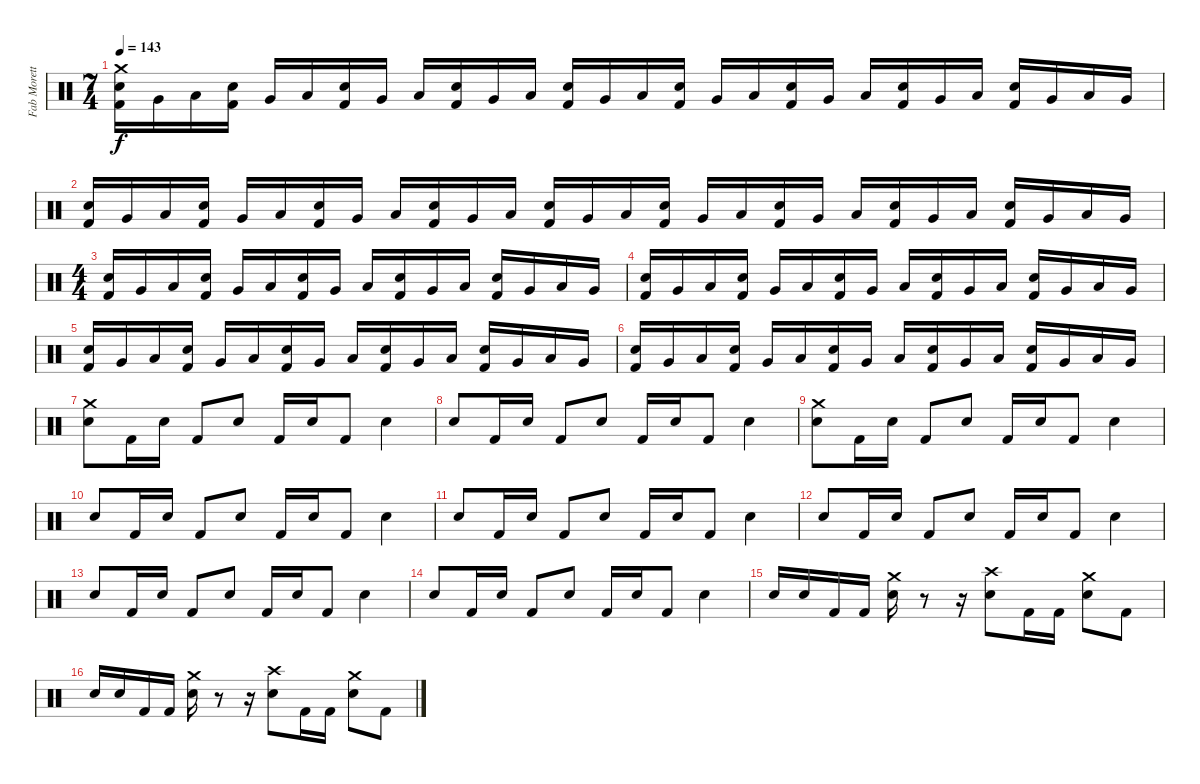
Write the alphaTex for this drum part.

\track ("Fab Moretti" "Fab Morett") {instrument percussion}
\staff {score}
\articulation defaults
\ts (7 4)
\tempo 143
\clef neutral
\ks c
("Crash medium (hit)" "Electric Snare (hit)" "Kick (hit) 2").16{dy f} "Very Low Tom (hit)".16 "Low Floor Tom (hit)".16 ("Electric Snare (hit)" "Kick (hit) 2").16 "Very Low Tom (hit)".16 "Low Floor Tom (hit)".16 ("Electric Snare (hit)" "Kick (hit) 2").16 "Very Low Tom (hit)".16 "Low Floor Tom (hit)".16 ("Electric Snare (hit)" "Kick (hit) 2").16 "Very Low Tom (hit)".16 "Low Floor Tom (hit)".16 ("Electric Snare (hit)" "Kick (hit) 2").16 "Very Low Tom (hit)".16 "Low Floor Tom (hit)".16 ("Electric Snare (hit)" "Kick (hit) 2").16 "Very Low Tom (hit)".16 "Low Floor Tom (hit)".16 ("Electric Snare (hit)" "Kick (hit) 2").16 "Very Low Tom (hit)".16 "Low Floor Tom (hit)".16 ("Electric Snare (hit)" "Kick (hit) 2").16 "Very Low Tom (hit)".16 "Low Floor Tom (hit)".16 ("Electric Snare (hit)" "Kick (hit) 2").16 "Very Low Tom (hit)".16 "Low Floor Tom (hit)".16 "Very Low Tom (hit)".16 |
("Electric Snare (hit)" "Kick (hit) 2").16 "Very Low Tom (hit)".16 "Low Floor Tom (hit)".16 ("Electric Snare (hit)" "Kick (hit) 2").16 "Very Low Tom (hit)".16 "Low Floor Tom (hit)".16 ("Electric Snare (hit)" "Kick (hit) 2").16 "Very Low Tom (hit)".16 "Low Floor Tom (hit)".16 ("Electric Snare (hit)" "Kick (hit) 2").16 "Very Low Tom (hit)".16 "Low Floor Tom (hit)".16 ("Electric Snare (hit)" "Kick (hit) 2").16 "Very Low Tom (hit)".16 "Low Floor Tom (hit)".16 ("Electric Snare (hit)" "Kick (hit) 2").16 "Very Low Tom (hit)".16 "Low Floor Tom (hit)".16 ("Electric Snare (hit)" "Kick (hit) 2").16 "Very Low Tom (hit)".16 "Low Floor Tom (hit)".16 ("Electric Snare (hit)" "Kick (hit) 2").16 "Very Low Tom (hit)".16 "Low Floor Tom (hit)".16 ("Electric Snare (hit)" "Kick (hit) 2").16 "Very Low Tom (hit)".16 "Low Floor Tom (hit)".16 "Very Low Tom (hit)".16 |
\ts (4 4)
("Electric Snare (hit)" "Kick (hit) 2").16 "Very Low Tom (hit)".16 "Low Floor Tom (hit)".16 ("Electric Snare (hit)" "Kick (hit) 2").16 "Very Low Tom (hit)".16 "Low Floor Tom (hit)".16 ("Electric Snare (hit)" "Kick (hit) 2").16 "Very Low Tom (hit)".16 "Low Floor Tom (hit)".16 ("Electric Snare (hit)" "Kick (hit) 2").16 "Very Low Tom (hit)".16 "Low Floor Tom (hit)".16 ("Electric Snare (hit)" "Kick (hit) 2").16 "Very Low Tom (hit)".16 "Low Floor Tom (hit)".16 "Very Low Tom (hit)".16 |
("Electric Snare (hit)" "Kick (hit) 2").16 "Very Low Tom (hit)".16 "Low Floor Tom (hit)".16 ("Electric Snare (hit)" "Kick (hit) 2").16 "Very Low Tom (hit)".16 "Low Floor Tom (hit)".16 ("Electric Snare (hit)" "Kick (hit) 2").16 "Very Low Tom (hit)".16 "Low Floor Tom (hit)".16 ("Electric Snare (hit)" "Kick (hit) 2").16 "Very Low Tom (hit)".16 "Low Floor Tom (hit)".16 ("Electric Snare (hit)" "Kick (hit) 2").16 "Very Low Tom (hit)".16 "Low Floor Tom (hit)".16 "Very Low Tom (hit)".16 |
("Electric Snare (hit)" "Kick (hit) 2").16 "Very Low Tom (hit)".16 "Low Floor Tom (hit)".16 ("Electric Snare (hit)" "Kick (hit) 2").16 "Very Low Tom (hit)".16 "Low Floor Tom (hit)".16 ("Electric Snare (hit)" "Kick (hit) 2").16 "Very Low Tom (hit)".16 "Low Floor Tom (hit)".16 ("Electric Snare (hit)" "Kick (hit) 2").16 "Very Low Tom (hit)".16 "Low Floor Tom (hit)".16 ("Electric Snare (hit)" "Kick (hit) 2").16 "Very Low Tom (hit)".16 "Low Floor Tom (hit)".16 "Very Low Tom (hit)".16 |
("Electric Snare (hit)" "Kick (hit) 2").16 "Very Low Tom (hit)".16 "Low Floor Tom (hit)".16 ("Electric Snare (hit)" "Kick (hit) 2").16 "Very Low Tom (hit)".16 "Low Floor Tom (hit)".16 ("Electric Snare (hit)" "Kick (hit) 2").16 "Very Low Tom (hit)".16 "Low Floor Tom (hit)".16 ("Electric Snare (hit)" "Kick (hit) 2").16 "Very Low Tom (hit)".16 "Low Floor Tom (hit)".16 ("Electric Snare (hit)" "Kick (hit) 2").16 "Very Low Tom (hit)".16 "Low Floor Tom (hit)".16 "Very Low Tom (hit)".16 |
("Crash medium (hit)" "Electric Snare (hit)").8 "Kick (hit) 2".16 "Electric Snare (hit)".16 "Kick (hit) 2".8 "Electric Snare (hit)".8 "Kick (hit) 2".16 "Electric Snare (hit)".16 "Kick (hit) 2".8 "Electric Snare (hit)".4 |
"Electric Snare (hit)".8 "Kick (hit) 2".16 "Electric Snare (hit)".16 "Kick (hit) 2".8 "Electric Snare (hit)".8 "Kick (hit) 2".16 "Electric Snare (hit)".16 "Kick (hit) 2".8 "Electric Snare (hit)".4 |
("Crash medium (hit)" "Electric Snare (hit)").8 "Kick (hit) 2".16 "Electric Snare (hit)".16 "Kick (hit) 2".8 "Electric Snare (hit)".8 "Kick (hit) 2".16 "Electric Snare (hit)".16 "Kick (hit) 2".8 "Electric Snare (hit)".4 |
"Electric Snare (hit)".8 "Kick (hit) 2".16 "Electric Snare (hit)".16 "Kick (hit) 2".8 "Electric Snare (hit)".8 "Kick (hit) 2".16 "Electric Snare (hit)".16 "Kick (hit) 2".8 "Electric Snare (hit)".4 |
"Electric Snare (hit)".8 "Kick (hit) 2".16 "Electric Snare (hit)".16 "Kick (hit) 2".8 "Electric Snare (hit)".8 "Kick (hit) 2".16 "Electric Snare (hit)".16 "Kick (hit) 2".8 "Electric Snare (hit)".4 |
"Electric Snare (hit)".8 "Kick (hit) 2".16 "Electric Snare (hit)".16 "Kick (hit) 2".8 "Electric Snare (hit)".8 "Kick (hit) 2".16 "Electric Snare (hit)".16 "Kick (hit) 2".8 "Electric Snare (hit)".4 |
"Electric Snare (hit)".8 "Kick (hit) 2".16 "Electric Snare (hit)".16 "Kick (hit) 2".8 "Electric Snare (hit)".8 "Kick (hit) 2".16 "Electric Snare (hit)".16 "Kick (hit) 2".8 "Electric Snare (hit)".4 |
"Electric Snare (hit)".8 "Kick (hit) 2".16 "Electric Snare (hit)".16 "Kick (hit) 2".8 "Electric Snare (hit)".8 "Kick (hit) 2".16 "Electric Snare (hit)".16 "Kick (hit) 2".8 "Electric Snare (hit)".4 |
"Electric Snare (hit)".16 "Electric Snare (hit)".16 "Kick (hit) 2".16 "Kick (hit) 2".16 ("Crash medium (hit)" "Electric Snare (hit)").16 r.8 r.16 ("Crash high (hit)" "Electric Snare (hit)").8 "Kick (hit) 2".16 "Kick (hit) 2".16 ("Crash medium (hit)" "Electric Snare (hit)").8 "Kick (hit) 2".8 |
"Electric Snare (hit)".16 "Electric Snare (hit)".16 "Kick (hit) 2".16 "Kick (hit) 2".16 ("Crash medium (hit)" "Electric Snare (hit)").16 r.8 r.16 ("Crash high (hit)" "Electric Snare (hit)").8 "Kick (hit) 2".16 "Kick (hit) 2".16 ("Crash medium (hit)" "Electric Snare (hit)").8 "Kick (hit) 2".8
